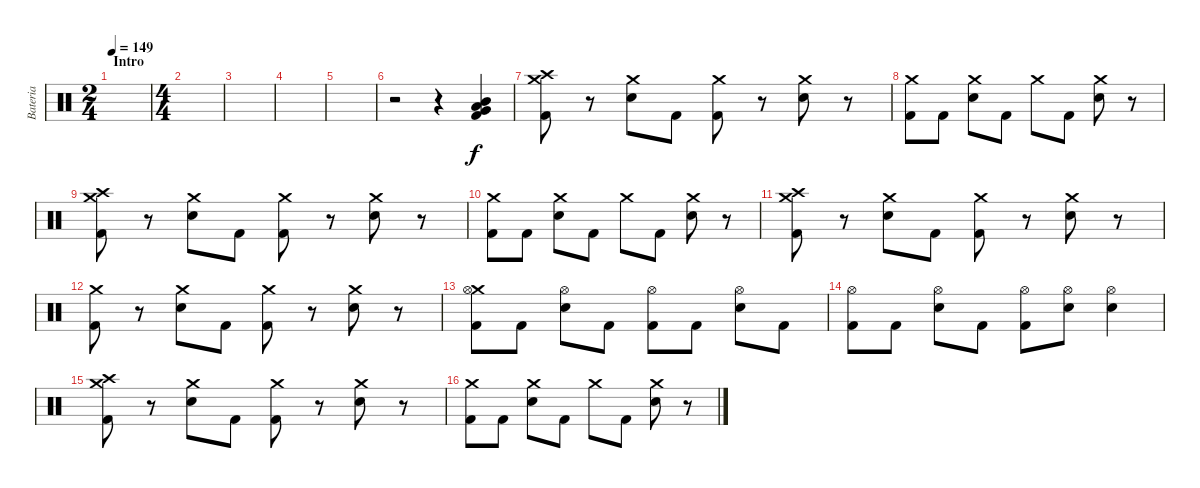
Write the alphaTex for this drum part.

\track ("Bateria" "Bateria") {instrument percussion}
\staff {score}
\articulation defaults
\ts (2 4)
\section ("" "Intro")
\tempo 149
\clef neutral
\ks c
|
\ts (4 4)
|
|
|
|
r.2 r.4 ("Mid Tom (hit)" "Very Low Tom (hit)" "Low Floor Tom (hit)" "Kick (hit) 2").4 |
("Crash high (hit)" "Crash medium (hit)" "Kick (hit) 2").8{dy f} r.8 ("Crash medium (hit)" "Electric Snare (hit)").8 "Kick (hit) 2".8 ("Crash medium (hit)" "Kick (hit) 2").8 r.8 ("Crash medium (hit)" "Electric Snare (hit)").8 r.8 |
("Crash medium (hit)" "Kick (hit) 2").8 "Kick (hit) 2".8 ("Crash medium (hit)" "Electric Snare (hit)").8 "Kick (hit) 2".8 "Crash medium (hit)".8 "Kick (hit) 2".8 ("Crash medium (hit)" "Electric Snare (hit)").8 r.8 |
("Crash high (hit)" "Crash medium (hit)" "Kick (hit) 2").8 r.8 ("Crash medium (hit)" "Electric Snare (hit)").8 "Kick (hit) 2".8 ("Crash medium (hit)" "Kick (hit) 2").8 r.8 ("Crash medium (hit)" "Electric Snare (hit)").8 r.8 |
("Crash medium (hit)" "Kick (hit) 2").8 "Kick (hit) 2".8 ("Crash medium (hit)" "Electric Snare (hit)").8 "Kick (hit) 2".8 "Crash medium (hit)".8 "Kick (hit) 2".8 ("Crash medium (hit)" "Electric Snare (hit)").8 r.8 |
("Crash high (hit)" "Crash medium (hit)" "Kick (hit) 2").8 r.8 ("Crash medium (hit)" "Electric Snare (hit)").8 "Kick (hit) 2".8 ("Crash medium (hit)" "Kick (hit) 2").8 r.8 ("Crash medium (hit)" "Electric Snare (hit)").8 r.8 |
("Crash medium (hit)" "Kick (hit) 2").8 r.8 ("Crash medium (hit)" "Electric Snare (hit)").8 "Kick (hit) 2".8 ("Crash medium (hit)" "Kick (hit) 2").8 r.8 ("Crash medium (hit)" "Electric Snare (hit)").8 r.8 |
("Crash medium (hit)" "Hi-Hat (open)" "Kick (hit) 2").8 "Kick (hit) 2".8 ("Hi-Hat (open)" "Electric Snare (hit)").8 "Kick (hit) 2".8 ("Hi-Hat (open)" "Kick (hit) 2").8 "Kick (hit) 2".8 ("Hi-Hat (open)" "Electric Snare (hit)").8 "Kick (hit) 2".8 |
("Hi-Hat (open)" "Kick (hit) 2").8 "Kick (hit) 2".8 ("Hi-Hat (open)" "Electric Snare (hit)").8 "Kick (hit) 2".8 ("Hi-Hat (open)" "Kick (hit) 2").8 ("Hi-Hat (open)" "Electric Snare (hit)").8 ("Hi-Hat (open)" "Electric Snare (hit)").4 |
("Crash high (hit)" "Crash medium (hit)" "Kick (hit) 2").8 r.8 ("Crash medium (hit)" "Electric Snare (hit)").8 "Kick (hit) 2".8 ("Crash medium (hit)" "Kick (hit) 2").8 r.8 ("Crash medium (hit)" "Electric Snare (hit)").8 r.8 |
("Crash medium (hit)" "Kick (hit) 2").8 "Kick (hit) 2".8 ("Crash medium (hit)" "Electric Snare (hit)").8 "Kick (hit) 2".8 "Crash medium (hit)".8 "Kick (hit) 2".8 ("Crash medium (hit)" "Electric Snare (hit)").8 r.8
